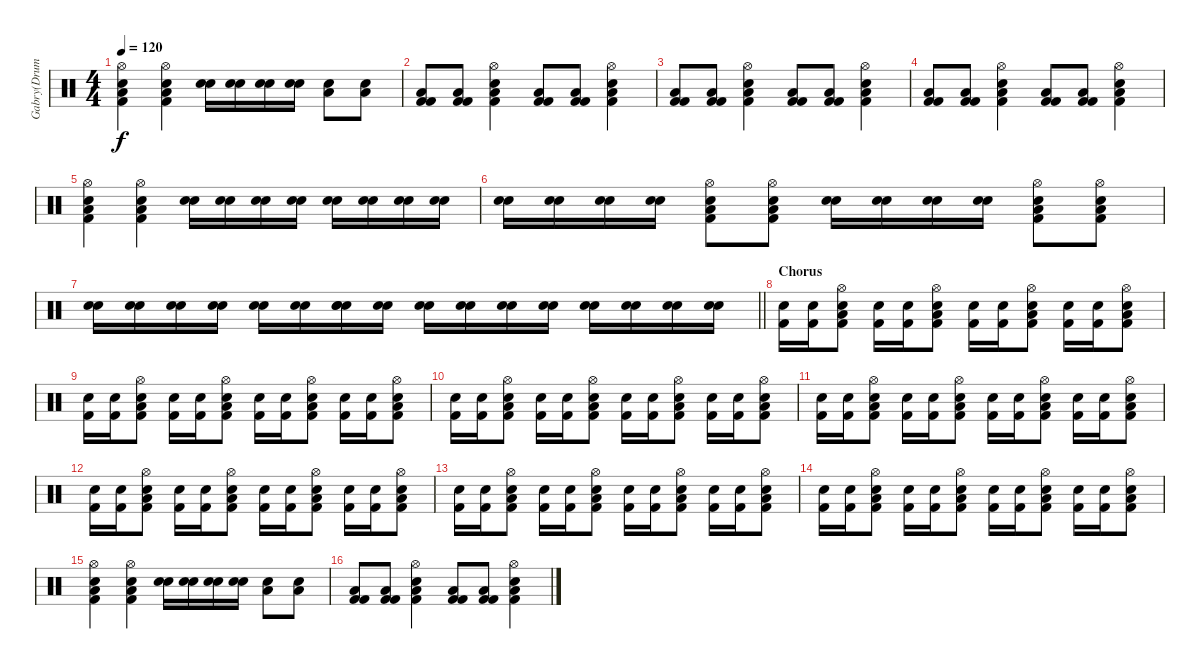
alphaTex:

\track ("Gabry(Drums)" "Gabry(Drum") {instrument percussion}
\staff {score}
\articulation defaults
\ts (4 4)
\tempo 120
\clef neutral
\ks c
("Kick (hit) 2" "Electric Snare (hit)" "Low Floor Tom (hit)" "Hi-Hat (open)").4{dy f} ("Kick (hit) 2" "Electric Snare (hit)" "Low Floor Tom (hit)" "Hi-Hat (open)").4 ("Electric Snare (hit)" "Electric Snare (hit)").16 ("Electric Snare (hit)" "Electric Snare (hit)").16 ("Electric Snare (hit)" "Electric Snare (hit)").16 ("Electric Snare (hit)" "Electric Snare (hit)").16 ("Electric Snare (hit)" "Low Floor Tom (hit)").8 ("Electric Snare (hit)" "Low Floor Tom (hit)").8 |
("Kick (hit) 2" "Kick (hit) 2" "Low Floor Tom (hit)").8 ("Kick (hit) 2" "Kick (hit) 2" "Low Floor Tom (hit)").8 ("Kick (hit) 2" "Electric Snare (hit)" "Low Floor Tom (hit)" "Hi-Hat (open)").4 ("Kick (hit) 2" "Kick (hit) 2" "Low Floor Tom (hit)").8 ("Kick (hit) 2" "Kick (hit) 2" "Low Floor Tom (hit)").8 ("Kick (hit) 2" "Electric Snare (hit)" "Low Floor Tom (hit)" "Hi-Hat (open)").4 |
("Kick (hit) 2" "Kick (hit) 2" "Low Floor Tom (hit)").8 ("Kick (hit) 2" "Kick (hit) 2" "Low Floor Tom (hit)").8 ("Kick (hit) 2" "Electric Snare (hit)" "Low Floor Tom (hit)" "Hi-Hat (open)").4 ("Kick (hit) 2" "Kick (hit) 2" "Low Floor Tom (hit)").8 ("Kick (hit) 2" "Kick (hit) 2" "Low Floor Tom (hit)").8 ("Kick (hit) 2" "Electric Snare (hit)" "Low Floor Tom (hit)" "Hi-Hat (open)").4 |
("Kick (hit) 2" "Kick (hit) 2" "Low Floor Tom (hit)").8 ("Kick (hit) 2" "Kick (hit) 2" "Low Floor Tom (hit)").8 ("Kick (hit) 2" "Electric Snare (hit)" "Low Floor Tom (hit)" "Hi-Hat (open)").4 ("Kick (hit) 2" "Kick (hit) 2" "Low Floor Tom (hit)").8 ("Kick (hit) 2" "Kick (hit) 2" "Low Floor Tom (hit)").8 ("Kick (hit) 2" "Electric Snare (hit)" "Low Floor Tom (hit)" "Hi-Hat (open)").4 |
("Kick (hit) 2" "Electric Snare (hit)" "Low Floor Tom (hit)" "Hi-Hat (open)").4 ("Kick (hit) 2" "Electric Snare (hit)" "Low Floor Tom (hit)" "Hi-Hat (open)").4 ("Electric Snare (hit)" "Electric Snare (hit)").16 ("Electric Snare (hit)" "Electric Snare (hit)").16 ("Electric Snare (hit)" "Electric Snare (hit)").16 ("Electric Snare (hit)" "Electric Snare (hit)").16 ("Electric Snare (hit)" "Electric Snare (hit)").16 ("Electric Snare (hit)" "Electric Snare (hit)").16 ("Electric Snare (hit)" "Electric Snare (hit)").16 ("Electric Snare (hit)" "Electric Snare (hit)").16 |
("Electric Snare (hit)" "Electric Snare (hit)").16 ("Electric Snare (hit)" "Electric Snare (hit)").16 ("Electric Snare (hit)" "Electric Snare (hit)").16 ("Electric Snare (hit)" "Electric Snare (hit)").16 ("Kick (hit) 2" "Electric Snare (hit)" "Low Floor Tom (hit)" "Hi-Hat (open)").8 ("Kick (hit) 2" "Electric Snare (hit)" "Low Floor Tom (hit)" "Hi-Hat (open)").8 ("Electric Snare (hit)" "Electric Snare (hit)").16 ("Electric Snare (hit)" "Electric Snare (hit)").16 ("Electric Snare (hit)" "Electric Snare (hit)").16 ("Electric Snare (hit)" "Electric Snare (hit)").16 ("Kick (hit) 2" "Electric Snare (hit)" "Low Floor Tom (hit)" "Hi-Hat (open)").8 ("Kick (hit) 2" "Electric Snare (hit)" "Low Floor Tom (hit)" "Hi-Hat (open)").8 |
\barLineRight lightlight
("Electric Snare (hit)" "Electric Snare (hit)").16 ("Electric Snare (hit)" "Electric Snare (hit)").16 ("Electric Snare (hit)" "Electric Snare (hit)").16 ("Electric Snare (hit)" "Electric Snare (hit)").16 ("Electric Snare (hit)" "Electric Snare (hit)").16 ("Electric Snare (hit)" "Electric Snare (hit)").16 ("Electric Snare (hit)" "Electric Snare (hit)" "Electric Snare (hit)").16 ("Electric Snare (hit)" "Electric Snare (hit)").16 ("Electric Snare (hit)" "Electric Snare (hit)").16 ("Electric Snare (hit)" "Electric Snare (hit)").16 ("Electric Snare (hit)" "Electric Snare (hit)").16 ("Electric Snare (hit)" "Electric Snare (hit)").16 ("Electric Snare (hit)" "Electric Snare (hit)").16 ("Electric Snare (hit)" "Electric Snare (hit)").16 ("Electric Snare (hit)" "Electric Snare (hit)").16 ("Electric Snare (hit)" "Electric Snare (hit)").16 |
\section ("" "Chorus")
("Kick (hit) 2" "Electric Snare (hit)").16 ("Kick (hit) 2" "Electric Snare (hit)").16 ("Kick (hit) 2" "Electric Snare (hit)" "Low Floor Tom (hit)" "Hi-Hat (open)").8 ("Kick (hit) 2" "Electric Snare (hit)").16 ("Kick (hit) 2" "Electric Snare (hit)").16 ("Kick (hit) 2" "Electric Snare (hit)" "Low Floor Tom (hit)" "Hi-Hat (open)").8 ("Kick (hit) 2" "Electric Snare (hit)").16 ("Kick (hit) 2" "Electric Snare (hit)").16 ("Kick (hit) 2" "Electric Snare (hit)" "Low Floor Tom (hit)" "Hi-Hat (open)").8 ("Kick (hit) 2" "Electric Snare (hit)").16 ("Kick (hit) 2" "Electric Snare (hit)").16 ("Kick (hit) 2" "Electric Snare (hit)" "Low Floor Tom (hit)" "Hi-Hat (open)").8 |
("Kick (hit) 2" "Electric Snare (hit)").16 ("Kick (hit) 2" "Electric Snare (hit)").16 ("Kick (hit) 2" "Electric Snare (hit)" "Low Floor Tom (hit)" "Hi-Hat (open)").8 ("Kick (hit) 2" "Electric Snare (hit)").16 ("Kick (hit) 2" "Electric Snare (hit)").16 ("Kick (hit) 2" "Electric Snare (hit)" "Low Floor Tom (hit)" "Hi-Hat (open)").8 ("Kick (hit) 2" "Electric Snare (hit)").16 ("Kick (hit) 2" "Electric Snare (hit)").16 ("Kick (hit) 2" "Electric Snare (hit)" "Low Floor Tom (hit)" "Hi-Hat (open)").8 ("Kick (hit) 2" "Electric Snare (hit)").16 ("Kick (hit) 2" "Electric Snare (hit)").16 ("Kick (hit) 2" "Electric Snare (hit)" "Low Floor Tom (hit)" "Hi-Hat (open)").8 |
("Kick (hit) 2" "Electric Snare (hit)").16 ("Kick (hit) 2" "Electric Snare (hit)").16 ("Kick (hit) 2" "Electric Snare (hit)" "Low Floor Tom (hit)" "Hi-Hat (open)").8 ("Kick (hit) 2" "Electric Snare (hit)").16 ("Kick (hit) 2" "Electric Snare (hit)").16 ("Kick (hit) 2" "Electric Snare (hit)" "Low Floor Tom (hit)" "Hi-Hat (open)").8 ("Kick (hit) 2" "Electric Snare (hit)").16 ("Kick (hit) 2" "Electric Snare (hit)").16 ("Kick (hit) 2" "Electric Snare (hit)" "Low Floor Tom (hit)" "Hi-Hat (open)").8 ("Kick (hit) 2" "Electric Snare (hit)").16 ("Kick (hit) 2" "Electric Snare (hit)").16 ("Kick (hit) 2" "Electric Snare (hit)" "Low Floor Tom (hit)" "Hi-Hat (open)").8 |
("Kick (hit) 2" "Electric Snare (hit)").16 ("Kick (hit) 2" "Electric Snare (hit)").16 ("Kick (hit) 2" "Electric Snare (hit)" "Low Floor Tom (hit)" "Hi-Hat (open)").8 ("Kick (hit) 2" "Electric Snare (hit)").16 ("Kick (hit) 2" "Electric Snare (hit)").16 ("Kick (hit) 2" "Electric Snare (hit)" "Low Floor Tom (hit)" "Hi-Hat (open)").8 ("Kick (hit) 2" "Electric Snare (hit)").16 ("Kick (hit) 2" "Electric Snare (hit)").16 ("Kick (hit) 2" "Electric Snare (hit)" "Low Floor Tom (hit)" "Hi-Hat (open)").8 ("Kick (hit) 2" "Electric Snare (hit)").16 ("Kick (hit) 2" "Electric Snare (hit)").16 ("Kick (hit) 2" "Electric Snare (hit)" "Low Floor Tom (hit)" "Hi-Hat (open)").8 |
("Kick (hit) 2" "Electric Snare (hit)").16 ("Kick (hit) 2" "Electric Snare (hit)").16 ("Kick (hit) 2" "Electric Snare (hit)" "Low Floor Tom (hit)" "Hi-Hat (open)").8 ("Kick (hit) 2" "Electric Snare (hit)").16 ("Kick (hit) 2" "Electric Snare (hit)").16 ("Kick (hit) 2" "Electric Snare (hit)" "Low Floor Tom (hit)" "Hi-Hat (open)").8 ("Kick (hit) 2" "Electric Snare (hit)").16 ("Kick (hit) 2" "Electric Snare (hit)").16 ("Kick (hit) 2" "Electric Snare (hit)" "Low Floor Tom (hit)" "Hi-Hat (open)").8 ("Kick (hit) 2" "Electric Snare (hit)").16 ("Kick (hit) 2" "Electric Snare (hit)").16 ("Kick (hit) 2" "Electric Snare (hit)" "Low Floor Tom (hit)" "Hi-Hat (open)").8 |
("Kick (hit) 2" "Electric Snare (hit)").16 ("Kick (hit) 2" "Electric Snare (hit)").16 ("Kick (hit) 2" "Electric Snare (hit)" "Low Floor Tom (hit)" "Hi-Hat (open)").8 ("Kick (hit) 2" "Electric Snare (hit)").16 ("Kick (hit) 2" "Electric Snare (hit)").16 ("Kick (hit) 2" "Electric Snare (hit)" "Low Floor Tom (hit)" "Hi-Hat (open)").8 ("Kick (hit) 2" "Electric Snare (hit)").16 ("Kick (hit) 2" "Electric Snare (hit)").16 ("Kick (hit) 2" "Electric Snare (hit)" "Low Floor Tom (hit)" "Hi-Hat (open)").8 ("Kick (hit) 2" "Electric Snare (hit)").16 ("Kick (hit) 2" "Electric Snare (hit)").16 ("Kick (hit) 2" "Electric Snare (hit)" "Low Floor Tom (hit)" "Hi-Hat (open)").8 |
("Kick (hit) 2" "Electric Snare (hit)").16 ("Kick (hit) 2" "Electric Snare (hit)").16 ("Kick (hit) 2" "Electric Snare (hit)" "Low Floor Tom (hit)" "Hi-Hat (open)").8 ("Kick (hit) 2" "Electric Snare (hit)").16 ("Kick (hit) 2" "Electric Snare (hit)").16 ("Kick (hit) 2" "Electric Snare (hit)" "Low Floor Tom (hit)" "Hi-Hat (open)").8 ("Kick (hit) 2" "Electric Snare (hit)").16 ("Kick (hit) 2" "Electric Snare (hit)").16 ("Kick (hit) 2" "Electric Snare (hit)" "Low Floor Tom (hit)" "Hi-Hat (open)").8 ("Kick (hit) 2" "Electric Snare (hit)").16 ("Kick (hit) 2" "Electric Snare (hit)").16 ("Kick (hit) 2" "Electric Snare (hit)" "Low Floor Tom (hit)" "Hi-Hat (open)").8 |
("Kick (hit) 2" "Electric Snare (hit)" "Low Floor Tom (hit)" "Hi-Hat (open)").4 ("Kick (hit) 2" "Electric Snare (hit)" "Low Floor Tom (hit)" "Hi-Hat (open)").4 ("Electric Snare (hit)" "Electric Snare (hit)").16 ("Electric Snare (hit)" "Electric Snare (hit)").16 ("Electric Snare (hit)" "Electric Snare (hit)").16 ("Electric Snare (hit)" "Electric Snare (hit)").16 ("Electric Snare (hit)" "Low Floor Tom (hit)").8 ("Electric Snare (hit)" "Low Floor Tom (hit)").8 |
("Kick (hit) 2" "Kick (hit) 2" "Low Floor Tom (hit)").8 ("Kick (hit) 2" "Kick (hit) 2" "Low Floor Tom (hit)").8 ("Kick (hit) 2" "Electric Snare (hit)" "Low Floor Tom (hit)" "Hi-Hat (open)").4 ("Kick (hit) 2" "Kick (hit) 2" "Low Floor Tom (hit)").8 ("Kick (hit) 2" "Kick (hit) 2" "Low Floor Tom (hit)").8 ("Kick (hit) 2" "Electric Snare (hit)" "Low Floor Tom (hit)" "Hi-Hat (open)").4
